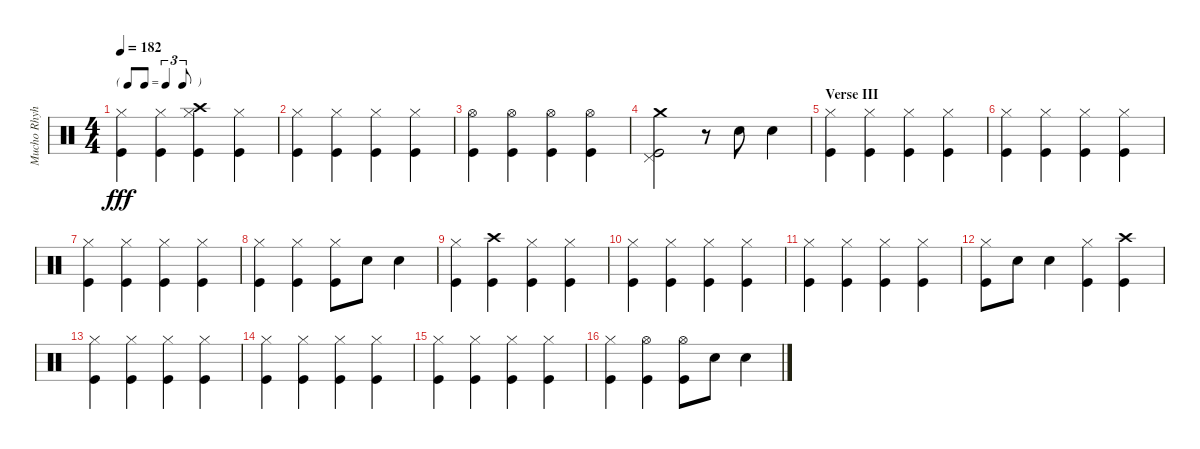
\track ("Mucho Rhyhtm" "Mucho Rhyh") {instrument percussion}
\staff {score}
\articulation defaults
\ts (4 4)
\tf triplet8th
\tempo 182
\clef neutral
\ks c
("Hi-Hat (closed)" "Kick (hit)").4{dy fff} ("Hi-Hat (closed)" "Kick (hit)").4 ("Hi-Hat (closed)" "Crash high (hit)" "Kick (hit)").4 ("Hi-Hat (closed)" "Kick (hit)").4 |
("Hi-Hat (closed)" "Kick (hit)").4 ("Hi-Hat (closed)" "Kick (hit)").4 ("Hi-Hat (closed)" "Kick (hit)").4 ("Hi-Hat (closed)" "Kick (hit)").4 |
("Hi-Hat (open)" "Kick (hit)").4 ("Hi-Hat (open)" "Kick (hit)").4 ("Hi-Hat (open)" "Kick (hit)").4 ("Hi-Hat (open)" "Kick (hit)").4 |
("Pedal Hi-Hat (hit)" "Crash medium (hit)" "Kick (hit)").2 r.8 "Snare (hit) 2".8 "Snare (hit) 2".4 |
\section ("" "Verse III")
("Hi-Hat (closed)" "Kick (hit)").4 ("Hi-Hat (closed)" "Kick (hit)").4 ("Hi-Hat (closed)" "Kick (hit)").4 ("Hi-Hat (closed)" "Kick (hit)").4 |
("Hi-Hat (closed)" "Kick (hit)").4 ("Hi-Hat (closed)" "Kick (hit)").4 ("Hi-Hat (closed)" "Kick (hit)").4 ("Hi-Hat (closed)" "Kick (hit)").4 |
("Hi-Hat (closed)" "Kick (hit)").4 ("Hi-Hat (closed)" "Kick (hit)").4 ("Hi-Hat (closed)" "Kick (hit)").4 ("Hi-Hat (closed)" "Kick (hit)").4 |
("Hi-Hat (closed)" "Kick (hit)").4 ("Hi-Hat (closed)" "Kick (hit)").4 ("Hi-Hat (closed)" "Kick (hit)").8 "Snare (hit) 2".8 "Snare (hit) 2".4 |
("Hi-Hat (closed)" "Kick (hit)").4 ("Crash high (hit)" "Kick (hit)").4 ("Hi-Hat (closed)" "Kick (hit)").4 ("Hi-Hat (closed)" "Kick (hit)").4 |
("Hi-Hat (closed)" "Kick (hit)").4 ("Hi-Hat (closed)" "Kick (hit)").4 ("Hi-Hat (closed)" "Kick (hit)").4 ("Hi-Hat (closed)" "Kick (hit)").4 |
("Hi-Hat (closed)" "Kick (hit)").4 ("Hi-Hat (closed)" "Kick (hit)").4 ("Hi-Hat (closed)" "Kick (hit)").4 ("Hi-Hat (closed)" "Kick (hit)").4 |
("Hi-Hat (closed)" "Kick (hit)").8 "Snare (hit) 2".8 "Snare (hit) 2".4 ("Hi-Hat (closed)" "Kick (hit)").4 ("Crash high (hit)" "Kick (hit)").4 |
("Hi-Hat (closed)" "Kick (hit)").4 ("Hi-Hat (closed)" "Kick (hit)").4 ("Hi-Hat (closed)" "Kick (hit)").4 ("Hi-Hat (closed)" "Kick (hit)").4 |
("Hi-Hat (closed)" "Kick (hit)").4 ("Hi-Hat (closed)" "Kick (hit)").4 ("Hi-Hat (closed)" "Kick (hit)").4 ("Hi-Hat (closed)" "Kick (hit)").4 |
("Hi-Hat (closed)" "Kick (hit)").4 ("Hi-Hat (closed)" "Kick (hit)").4 ("Hi-Hat (closed)" "Kick (hit)").4 ("Hi-Hat (closed)" "Kick (hit)").4 |
("Hi-Hat (closed)" "Kick (hit)").4 ("Hi-Hat (open)" "Kick (hit)").4 ("Hi-Hat (open)" "Kick (hit)").8 "Snare (hit) 2".8 "Snare (hit) 2".4
